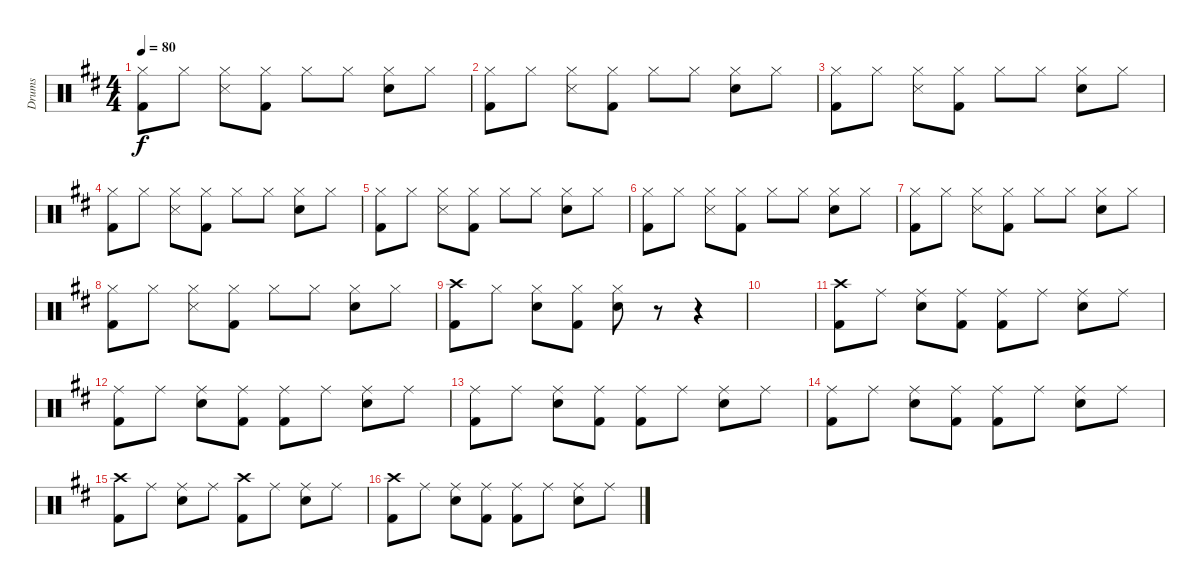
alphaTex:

\track ("Drums" "Drums") {instrument percussion}
\staff {score}
\articulation defaults
\ts (4 4)
\tempo 80
\clef neutral
\ks d
("Hi-Hat (closed)" "Kick (hit) 2").8{dy f} "Hi-Hat (closed)".8 ("Hi-Hat (closed)" "Snare (side stick) 3").8 ("Hi-Hat (closed)" "Kick (hit) 2").8 "Hi-Hat (closed)".8 "Hi-Hat (closed)".8 ("Hi-Hat (closed)" "Snare (hit) 2").8 "Hi-Hat (closed)".8 |
("Hi-Hat (closed)" "Kick (hit) 2").8 "Hi-Hat (closed)".8 ("Hi-Hat (closed)" "Snare (side stick) 3").8 ("Hi-Hat (closed)" "Kick (hit) 2").8 "Hi-Hat (closed)".8 "Hi-Hat (closed)".8 ("Hi-Hat (closed)" "Snare (hit) 2").8 "Hi-Hat (closed)".8 |
("Hi-Hat (closed)" "Kick (hit) 2").8 "Hi-Hat (closed)".8 ("Hi-Hat (closed)" "Snare (side stick) 3").8 ("Hi-Hat (closed)" "Kick (hit) 2").8 "Hi-Hat (closed)".8 "Hi-Hat (closed)".8 ("Hi-Hat (closed)" "Snare (hit) 2").8 "Hi-Hat (closed)".8 |
("Hi-Hat (closed)" "Kick (hit) 2").8 "Hi-Hat (closed)".8 ("Hi-Hat (closed)" "Snare (side stick) 3").8 ("Hi-Hat (closed)" "Kick (hit) 2").8 "Hi-Hat (closed)".8 "Hi-Hat (closed)".8 ("Hi-Hat (closed)" "Snare (hit) 2").8 "Hi-Hat (closed)".8 |
("Hi-Hat (closed)" "Kick (hit) 2").8 "Hi-Hat (closed)".8 ("Hi-Hat (closed)" "Snare (side stick) 3").8 ("Hi-Hat (closed)" "Kick (hit) 2").8 "Hi-Hat (closed)".8 "Hi-Hat (closed)".8 ("Hi-Hat (closed)" "Snare (hit) 2").8 "Hi-Hat (closed)".8 |
("Hi-Hat (closed)" "Kick (hit) 2").8 "Hi-Hat (closed)".8 ("Hi-Hat (closed)" "Snare (side stick) 3").8 ("Hi-Hat (closed)" "Kick (hit) 2").8 "Hi-Hat (closed)".8 "Hi-Hat (closed)".8 ("Hi-Hat (closed)" "Snare (hit) 2").8 "Hi-Hat (closed)".8 |
("Hi-Hat (closed)" "Kick (hit) 2").8 "Hi-Hat (closed)".8 ("Hi-Hat (closed)" "Snare (side stick) 3").8 ("Hi-Hat (closed)" "Kick (hit) 2").8 "Hi-Hat (closed)".8 "Hi-Hat (closed)".8 ("Hi-Hat (closed)" "Snare (hit) 2").8 "Hi-Hat (closed)".8 |
("Hi-Hat (closed)" "Kick (hit) 2").8 "Hi-Hat (closed)".8 ("Hi-Hat (closed)" "Snare (side stick) 3").8 ("Hi-Hat (closed)" "Kick (hit) 2").8 "Hi-Hat (closed)".8 "Hi-Hat (closed)".8 ("Hi-Hat (closed)" "Snare (hit) 2").8 "Hi-Hat (closed)".8 |
("Crash high (hit)" "Kick (hit) 2").8 "Hi-Hat (closed)".8 ("Hi-Hat (closed)" "Snare (hit) 2").8 ("Hi-Hat (closed)" "Kick (hit) 2").8 ("Hi-Hat (closed)" "Snare (hit) 2").8 r.8 r.4 |
|
("Crash high (hit)" "Kick (hit) 2").8 "Ride (middle)".8 ("Ride (middle)" "Snare (hit) 2").8 ("Ride (middle)" "Kick (hit) 2").8 ("Ride (middle)" "Kick (hit) 2").8 "Ride (middle)".8 ("Ride (middle)" "Snare (hit) 2").8 "Ride (middle)".8 |
("Ride (middle)" "Kick (hit) 2").8 "Ride (middle)".8 ("Ride (middle)" "Snare (hit) 2").8 ("Ride (middle)" "Kick (hit) 2").8 ("Ride (middle)" "Kick (hit) 2").8 "Ride (middle)".8 ("Ride (middle)" "Snare (hit) 2").8 "Ride (middle)".8 |
("Ride (middle)" "Kick (hit) 2").8 "Ride (middle)".8 ("Ride (middle)" "Snare (hit) 2").8 ("Ride (middle)" "Kick (hit) 2").8 ("Ride (middle)" "Kick (hit) 2").8 "Ride (middle)".8 ("Ride (middle)" "Snare (hit) 2").8 "Ride (middle)".8 |
("Ride (middle)" "Kick (hit) 2").8 "Ride (middle)".8 ("Ride (middle)" "Snare (hit) 2").8 ("Ride (middle)" "Kick (hit) 2").8 ("Ride (middle)" "Kick (hit) 2").8 "Ride (middle)".8 ("Ride (middle)" "Snare (hit) 2").8 "Ride (middle)".8 |
("Crash high (hit)" "Kick (hit) 2").8 "Ride (middle)".8 ("Ride (middle)" "Snare (hit) 2").8 "Ride (middle)".8 ("Crash high (hit)" "Kick (hit) 2").8 "Ride (middle)".8 ("Ride (middle)" "Snare (hit) 2").8 "Ride (middle)".8 |
("Crash high (hit)" "Kick (hit) 2").8 "Ride (middle)".8 ("Ride (middle)" "Snare (hit) 2").8 ("Ride (middle)" "Kick (hit) 2").8 ("Ride (middle)" "Kick (hit) 2").8 "Ride (middle)".8 ("Ride (middle)" "Snare (hit) 2").8 "Ride (middle)".8
